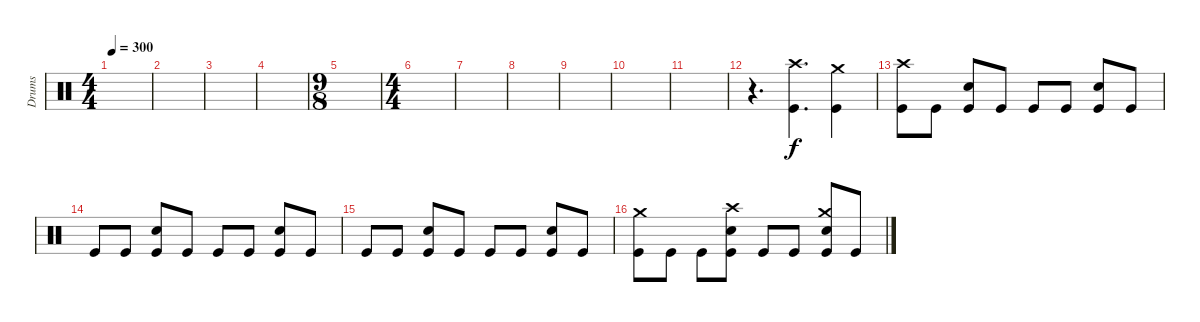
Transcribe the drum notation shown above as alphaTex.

\track ("Drums" "Drums") {instrument percussion}
\staff {score}
\articulation defaults
\ts (4 4)
\tempo 300
\clef neutral
\ks c
|
|
|
|
\ts (9 8)
|
\ts (4 4)
|
|
|
|
|
|
r.4{d} ("Crash high (hit)" "Kick (hit)").4{d} ("Crash medium (hit)" "Kick (hit)").4 |
("Crash high (hit)" "Kick (hit)").8 "Kick (hit)".8 ("Electric Snare (hit)" "Kick (hit)").8 "Kick (hit)".8 "Kick (hit)".8 "Kick (hit)".8 ("Electric Snare (hit)" "Kick (hit)").8 "Kick (hit)".8 |
"Kick (hit)".8 "Kick (hit)".8 ("Electric Snare (hit)" "Kick (hit)").8 "Kick (hit)".8 "Kick (hit)".8 "Kick (hit)".8 ("Electric Snare (hit)" "Kick (hit)").8 "Kick (hit)".8 |
"Kick (hit)".8 "Kick (hit)".8 ("Electric Snare (hit)" "Kick (hit)").8 "Kick (hit)".8 "Kick (hit)".8 "Kick (hit)".8 ("Electric Snare (hit)" "Kick (hit)").8 "Kick (hit)".8 |
("Crash medium (hit)" "Kick (hit)").8 "Kick (hit)".8 "Kick (hit)".8 ("Crash high (hit)" "Electric Snare (hit)" "Kick (hit)").8 "Kick (hit)".8 "Kick (hit)".8 ("Crash medium (hit)" "Electric Snare (hit)" "Kick (hit)").8 "Kick (hit)".8
